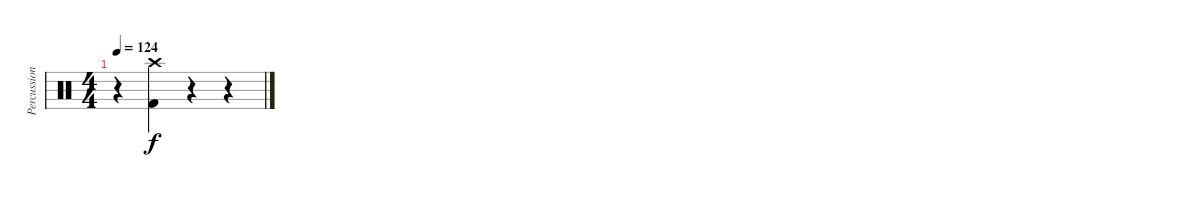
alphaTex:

\track ("Percussion" "Percussion") {instrument percussion}
\staff {score}
\articulation defaults
\ts (4 4)
\tempo 124
\clef neutral
\ks c
r.4{dy f} ("Crash high (hit)" "Kick (hit) 2").4 r.4 r.4
